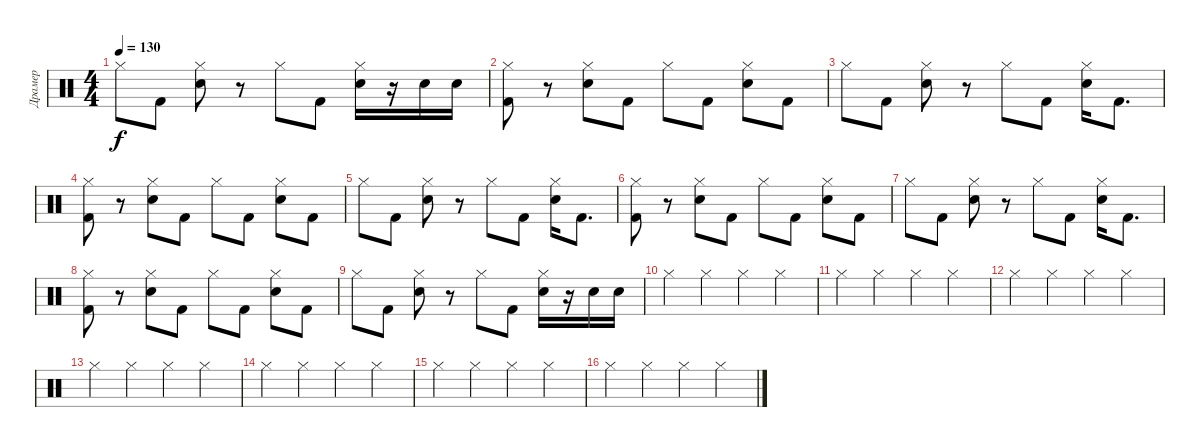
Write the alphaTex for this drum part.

\track ("Драмер" "Драмер") {instrument percussion}
\staff {score}
\articulation defaults
\ts (4 4)
\tempo 130
\clef neutral
\ks c "Hi-Hat (closed)".8{dy f} "Kick (hit) 2".8
("Hi-Hat (closed)" "Electric Snare (hit)").8 r.8 "Hi-Hat (closed)".8 "Kick (hit) 2".8 ("Hi-Hat (closed)" "Electric Snare (hit)").16 r.16 "Electric Snare (hit)".16 "Electric Snare (hit)".16 |
("Hi-Hat (closed)" "Kick (hit) 2").8 r.8 ("Hi-Hat (closed)" "Electric Snare (hit)").8 "Kick (hit) 2".8 "Hi-Hat (closed)".8 "Kick (hit) 2".8 ("Hi-Hat (closed)" "Electric Snare (hit)").8 "Kick (hit) 2".8 |
"Hi-Hat (closed)".8 "Kick (hit) 2".8 ("Hi-Hat (closed)" "Electric Snare (hit)").8 r.8 "Hi-Hat (closed)".8 "Kick (hit) 2".8 ("Hi-Hat (closed)" "Electric Snare (hit)").16 "Kick (hit) 2".8{d} |
("Hi-Hat (closed)" "Kick (hit) 2").8 r.8 ("Hi-Hat (closed)" "Electric Snare (hit)").8 "Kick (hit) 2".8 "Hi-Hat (closed)".8 "Kick (hit) 2".8 ("Hi-Hat (closed)" "Electric Snare (hit)").8 "Kick (hit) 2".8 |
"Hi-Hat (closed)".8 "Kick (hit) 2".8 ("Hi-Hat (closed)" "Electric Snare (hit)").8 r.8 "Hi-Hat (closed)".8 "Kick (hit) 2".8 ("Hi-Hat (closed)" "Electric Snare (hit)").16 "Kick (hit) 2".8{d} |
("Hi-Hat (closed)" "Kick (hit) 2").8 r.8 ("Hi-Hat (closed)" "Electric Snare (hit)").8 "Kick (hit) 2".8 "Hi-Hat (closed)".8 "Kick (hit) 2".8 ("Hi-Hat (closed)" "Electric Snare (hit)").8 "Kick (hit) 2".8 |
"Hi-Hat (closed)".8 "Kick (hit) 2".8 ("Hi-Hat (closed)" "Electric Snare (hit)").8 r.8 "Hi-Hat (closed)".8 "Kick (hit) 2".8 ("Hi-Hat (closed)" "Electric Snare (hit)").16 "Kick (hit) 2".8{d} |
("Hi-Hat (closed)" "Kick (hit) 2").8 r.8 ("Hi-Hat (closed)" "Electric Snare (hit)").8 "Kick (hit) 2".8 "Hi-Hat (closed)".8 "Kick (hit) 2".8 ("Hi-Hat (closed)" "Electric Snare (hit)").8 "Kick (hit) 2".8 |
"Hi-Hat (closed)".8 "Kick (hit) 2".8 ("Hi-Hat (closed)" "Electric Snare (hit)").8 r.8 "Hi-Hat (closed)".8 "Kick (hit) 2".8 ("Hi-Hat (closed)" "Electric Snare (hit)").16 r.16 "Electric Snare (hit)".16 "Electric Snare (hit)".16 |
"Hi-Hat (closed)".4 "Hi-Hat (closed)".4 "Hi-Hat (closed)".4 "Hi-Hat (closed)".4 |
"Hi-Hat (closed)".4 "Hi-Hat (closed)".4 "Hi-Hat (closed)".4 "Hi-Hat (closed)".4 |
"Hi-Hat (closed)".4 "Hi-Hat (closed)".4 "Hi-Hat (closed)".4 "Hi-Hat (closed)".4 |
"Hi-Hat (closed)".4 "Hi-Hat (closed)".4 "Hi-Hat (closed)".4 "Hi-Hat (closed)".4 |
"Hi-Hat (closed)".4 "Hi-Hat (closed)".4 "Hi-Hat (closed)".4 "Hi-Hat (closed)".4 |
"Hi-Hat (closed)".4 "Hi-Hat (closed)".4 "Hi-Hat (closed)".4 "Hi-Hat (closed)".4 |
"Hi-Hat (closed)".4 "Hi-Hat (closed)".4 "Hi-Hat (closed)".4 "Hi-Hat (closed)".4
